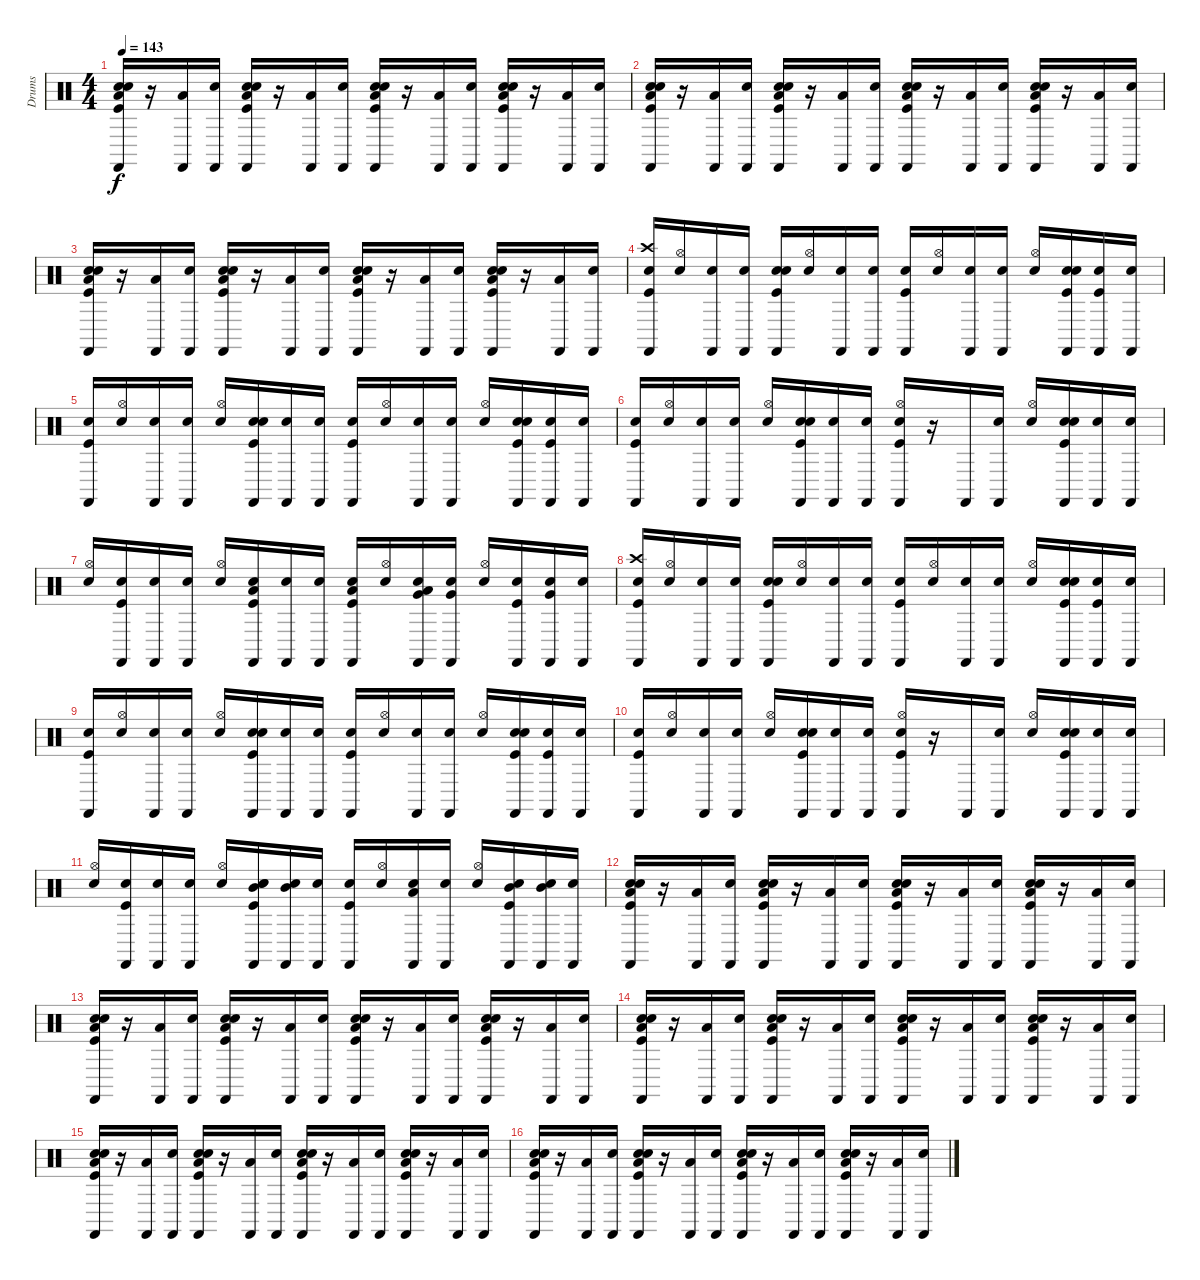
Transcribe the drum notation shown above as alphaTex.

\track ("Drums" "Drums") {instrument percussion}
\staff {score}
\articulation defaults
\ts (4 4)
\tempo 143
\clef neutral
\ks c
("Snare (hit)" "Low Tom (hit)" "Electric Snare (hit)" "Kick (hit)" "Castanets (hit)").16{dy f} r.16 ("Low Tom (hit)" "Castanets (hit)").16 ("Snare (hit)" "Castanets (hit)").16 ("Snare (hit)" "Low Tom (hit)" "Electric Snare (hit)" "Kick (hit)" "Castanets (hit)").16 r.16 ("Low Tom (hit)" "Castanets (hit)").16 ("Snare (hit)" "Castanets (hit)").16 ("Snare (hit)" "Low Tom (hit)" "Electric Snare (hit)" "Kick (hit)" "Castanets (hit)").16 r.16 ("Low Tom (hit)" "Castanets (hit)").16 ("Snare (hit)" "Castanets (hit)").16 ("Snare (hit)" "Low Tom (hit)" "Electric Snare (hit)" "Kick (hit)" "Castanets (hit)").16 r.16 ("Low Tom (hit)" "Castanets (hit)").16 ("Snare (hit)" "Castanets (hit)").16 |
("Snare (hit)" "Low Tom (hit)" "Electric Snare (hit)" "Kick (hit)" "Castanets (hit)").16 r.16 ("Low Tom (hit)" "Castanets (hit)").16 ("Snare (hit)" "Castanets (hit)").16 ("Snare (hit)" "Low Tom (hit)" "Electric Snare (hit)" "Kick (hit)" "Castanets (hit)").16 r.16 ("Low Tom (hit)" "Castanets (hit)").16 ("Snare (hit)" "Castanets (hit)").16 ("Snare (hit)" "Low Tom (hit)" "Electric Snare (hit)" "Kick (hit)" "Castanets (hit)").16 r.16 ("Low Tom (hit)" "Castanets (hit)").16 ("Snare (hit)" "Castanets (hit)").16 ("Snare (hit)" "Low Tom (hit)" "Electric Snare (hit)" "Kick (hit)" "Castanets (hit)").16 r.16 ("Low Tom (hit)" "Castanets (hit)").16 ("Snare (hit)" "Castanets (hit)").16 |
("Snare (hit)" "Low Tom (hit)" "Electric Snare (hit)" "Kick (hit)" "Castanets (hit)").16 r.16 ("Low Tom (hit)" "Castanets (hit)").16 ("Snare (hit)" "Castanets (hit)").16 ("Snare (hit)" "Low Tom (hit)" "Electric Snare (hit)" "Kick (hit)" "Castanets (hit)").16 r.16 ("Low Tom (hit)" "Castanets (hit)").16 ("Snare (hit)" "Castanets (hit)").16 ("Snare (hit)" "Low Tom (hit)" "Electric Snare (hit)" "Kick (hit)" "Castanets (hit)").16 r.16 ("Low Tom (hit)" "Castanets (hit)").16 ("Snare (hit)" "Castanets (hit)").16 ("Snare (hit)" "Low Tom (hit)" "Electric Snare (hit)" "Kick (hit)" "Castanets (hit)").16 r.16 ("Low Tom (hit)" "Castanets (hit)").16 ("Snare (hit)" "Castanets (hit)").16 |
("Snare (hit)" "Kick (hit)" "Crash high (hit)" "Castanets (hit)").16 ("Snare (hit)" "Hi-Hat (open)").16 ("Snare (hit)" "Castanets (hit)").16 ("Snare (hit)" "Castanets (hit)").16 ("Snare (hit)" "Electric Snare (hit)" "Kick (hit)" "Castanets (hit)").16 ("Snare (hit)" "Hi-Hat (open)").16 ("Snare (hit)" "Castanets (hit)").16 ("Snare (hit)" "Castanets (hit)").16 ("Snare (hit)" "Kick (hit)" "Castanets (hit)").16 ("Snare (hit)" "Hi-Hat (open)").16 ("Snare (hit)" "Castanets (hit)").16 ("Snare (hit)" "Castanets (hit)").16 ("Snare (hit)" "Hi-Hat (open)").16 ("Snare (hit)" "Electric Snare (hit)" "Kick (hit)" "Castanets (hit)").16 ("Snare (hit)" "Kick (hit)" "Castanets (hit)").16 ("Snare (hit)" "Castanets (hit)").16 |
("Snare (hit)" "Kick (hit)" "Castanets (hit)").16 ("Snare (hit)" "Hi-Hat (open)").16 ("Snare (hit)" "Castanets (hit)").16 ("Snare (hit)" "Castanets (hit)").16 ("Snare (hit)" "Hi-Hat (open)").16 ("Snare (hit)" "Electric Snare (hit)" "Kick (hit)" "Castanets (hit)").16 ("Snare (hit)" "Castanets (hit)").16 ("Snare (hit)" "Castanets (hit)").16 ("Snare (hit)" "Kick (hit)" "Castanets (hit)").16 ("Snare (hit)" "Hi-Hat (open)").16 ("Snare (hit)" "Castanets (hit)").16 ("Snare (hit)" "Castanets (hit)").16 ("Snare (hit)" "Hi-Hat (open)").16 ("Snare (hit)" "Electric Snare (hit)" "Kick (hit)" "Castanets (hit)").16 ("Snare (hit)" "Kick (hit)" "Castanets (hit)").16 ("Snare (hit)" "Castanets (hit)").16 |
("Snare (hit)" "Kick (hit)" "Castanets (hit)").16 ("Snare (hit)" "Hi-Hat (open)").16 ("Snare (hit)" "Castanets (hit)").16 ("Snare (hit)" "Castanets (hit)").16 ("Snare (hit)" "Hi-Hat (open)").16 ("Snare (hit)" "Electric Snare (hit)" "Kick (hit)" "Castanets (hit)").16 ("Snare (hit)" "Castanets (hit)").16 ("Snare (hit)" "Castanets (hit)").16 ("Snare (hit)" "Kick (hit)" "Castanets (hit)" "Hi-Hat (open)").16 r.16 "Castanets (hit)".16 ("Snare (hit)" "Castanets (hit)").16 ("Snare (hit)" "Hi-Hat (open)").16 ("Snare (hit)" "Electric Snare (hit)" "Kick (hit)" "Castanets (hit)").16 ("Snare (hit)" "Castanets (hit)").16 ("Snare (hit)" "Castanets (hit)").16 |
("Snare (hit)" "Hi-Hat (open)").16 ("Snare (hit)" "Kick (hit)" "Castanets (hit)").16 ("Snare (hit)" "Castanets (hit)").16 ("Snare (hit)" "Castanets (hit)").16 ("Snare (hit)" "Hi-Hat (open)").16 ("Snare (hit)" "Kick (hit)" "Low Tom (hit)" "Castanets (hit)").16 ("Snare (hit)" "Castanets (hit)").16 ("Snare (hit)" "Castanets (hit)").16 ("Snare (hit)" "Kick (hit)" "Low Tom (hit)" "Castanets (hit)").16 ("Snare (hit)" "Hi-Hat (open)").16 ("Snare (hit)" "Very Low Tom (hit)" "Low Tom (hit)" "Castanets (hit)").16 ("Snare (hit)" "Very Low Tom (hit)" "Castanets (hit)").16 ("Snare (hit)" "Hi-Hat (open)").16 ("Snare (hit)" "Kick (hit)" "Castanets (hit)").16 ("Snare (hit)" "Very Low Tom (hit)" "Castanets (hit)").16 ("Snare (hit)" "Castanets (hit)").16 |
("Snare (hit)" "Kick (hit)" "Crash high (hit)" "Castanets (hit)").16 ("Snare (hit)" "Hi-Hat (open)").16 ("Snare (hit)" "Castanets (hit)").16 ("Snare (hit)" "Castanets (hit)").16 ("Snare (hit)" "Electric Snare (hit)" "Kick (hit)" "Castanets (hit)").16 ("Snare (hit)" "Hi-Hat (open)").16 ("Snare (hit)" "Castanets (hit)").16 ("Snare (hit)" "Castanets (hit)").16 ("Snare (hit)" "Kick (hit)" "Castanets (hit)").16 ("Snare (hit)" "Hi-Hat (open)").16 ("Snare (hit)" "Castanets (hit)").16 ("Snare (hit)" "Castanets (hit)").16 ("Snare (hit)" "Hi-Hat (open)").16 ("Snare (hit)" "Electric Snare (hit)" "Kick (hit)" "Castanets (hit)").16 ("Snare (hit)" "Kick (hit)" "Castanets (hit)").16 ("Snare (hit)" "Castanets (hit)").16 |
("Snare (hit)" "Kick (hit)" "Castanets (hit)").16 ("Snare (hit)" "Hi-Hat (open)").16 ("Snare (hit)" "Castanets (hit)").16 ("Snare (hit)" "Castanets (hit)").16 ("Snare (hit)" "Hi-Hat (open)").16 ("Snare (hit)" "Electric Snare (hit)" "Kick (hit)" "Castanets (hit)").16 ("Snare (hit)" "Castanets (hit)").16 ("Snare (hit)" "Castanets (hit)").16 ("Snare (hit)" "Kick (hit)" "Castanets (hit)").16 ("Snare (hit)" "Hi-Hat (open)").16 ("Snare (hit)" "Castanets (hit)").16 ("Snare (hit)" "Castanets (hit)").16 ("Snare (hit)" "Hi-Hat (open)").16 ("Snare (hit)" "Electric Snare (hit)" "Kick (hit)" "Castanets (hit)").16 ("Snare (hit)" "Kick (hit)" "Castanets (hit)").16 ("Snare (hit)" "Castanets (hit)").16 |
("Snare (hit)" "Kick (hit)" "Castanets (hit)").16 ("Snare (hit)" "Hi-Hat (open)").16 ("Snare (hit)" "Castanets (hit)").16 ("Snare (hit)" "Castanets (hit)").16 ("Snare (hit)" "Hi-Hat (open)").16 ("Snare (hit)" "Electric Snare (hit)" "Kick (hit)" "Castanets (hit)").16 ("Snare (hit)" "Castanets (hit)").16 ("Snare (hit)" "Castanets (hit)").16 ("Snare (hit)" "Kick (hit)" "Castanets (hit)" "Hi-Hat (open)").16 r.16 "Castanets (hit)".16 ("Snare (hit)" "Castanets (hit)").16 ("Snare (hit)" "Hi-Hat (open)").16 ("Snare (hit)" "Electric Snare (hit)" "Kick (hit)" "Castanets (hit)").16 ("Snare (hit)" "Castanets (hit)").16 ("Snare (hit)" "Castanets (hit)").16 |
("Snare (hit)" "Hi-Hat (open)").16 ("Snare (hit)" "Kick (hit)" "Castanets (hit)").16 ("Snare (hit)" "Castanets (hit)").16 ("Snare (hit)" "Castanets (hit)").16 ("Snare (hit)" "Hi-Hat (open)").16 ("Snare (hit)" "Electric Snare (hit)" "Kick (hit)" "Mid Tom (hit)" "Castanets (hit)").16 ("Snare (hit)" "Mid Tom (hit)" "Castanets (hit)").16 ("Snare (hit)" "Castanets (hit)").16 ("Snare (hit)" "Kick (hit)" "Castanets (hit)").16 ("Snare (hit)" "Hi-Hat (open)").16 ("Snare (hit)" "Low Floor Tom (hit)" "Castanets (hit)").16 ("Snare (hit)" "Castanets (hit)").16 ("Snare (hit)" "Hi-Hat (open)").16 ("Snare (hit)" "Kick (hit)" "Mid Tom (hit)" "Castanets (hit)").16 ("Snare (hit)" "Mid Tom (hit)" "Castanets (hit)").16 ("Snare (hit)" "Castanets (hit)").16 |
("Snare (hit)" "Low Tom (hit)" "Electric Snare (hit)" "Kick (hit)" "Castanets (hit)").16 r.16 ("Low Tom (hit)" "Castanets (hit)").16 ("Snare (hit)" "Castanets (hit)").16 ("Snare (hit)" "Low Tom (hit)" "Electric Snare (hit)" "Kick (hit)" "Castanets (hit)").16 r.16 ("Low Tom (hit)" "Castanets (hit)").16 ("Snare (hit)" "Castanets (hit)").16 ("Snare (hit)" "Low Tom (hit)" "Electric Snare (hit)" "Kick (hit)" "Castanets (hit)").16 r.16 ("Low Tom (hit)" "Castanets (hit)").16 ("Snare (hit)" "Castanets (hit)").16 ("Snare (hit)" "Low Tom (hit)" "Electric Snare (hit)" "Kick (hit)" "Castanets (hit)").16 r.16 ("Low Tom (hit)" "Castanets (hit)").16 ("Snare (hit)" "Castanets (hit)").16 |
("Snare (hit)" "Low Tom (hit)" "Electric Snare (hit)" "Kick (hit)" "Castanets (hit)").16 r.16 ("Low Tom (hit)" "Castanets (hit)").16 ("Snare (hit)" "Castanets (hit)").16 ("Snare (hit)" "Low Tom (hit)" "Electric Snare (hit)" "Kick (hit)" "Castanets (hit)").16 r.16 ("Low Tom (hit)" "Castanets (hit)").16 ("Snare (hit)" "Castanets (hit)").16 ("Snare (hit)" "Low Tom (hit)" "Electric Snare (hit)" "Kick (hit)" "Castanets (hit)").16 r.16 ("Low Tom (hit)" "Castanets (hit)").16 ("Snare (hit)" "Castanets (hit)").16 ("Snare (hit)" "Low Tom (hit)" "Electric Snare (hit)" "Kick (hit)" "Castanets (hit)").16 r.16 ("Low Tom (hit)" "Castanets (hit)").16 ("Snare (hit)" "Castanets (hit)").16 |
("Snare (hit)" "Low Tom (hit)" "Electric Snare (hit)" "Kick (hit)" "Castanets (hit)").16 r.16 ("Low Tom (hit)" "Castanets (hit)").16 ("Snare (hit)" "Castanets (hit)").16 ("Snare (hit)" "Low Tom (hit)" "Electric Snare (hit)" "Kick (hit)" "Castanets (hit)").16 r.16 ("Low Tom (hit)" "Castanets (hit)").16 ("Snare (hit)" "Castanets (hit)").16 ("Snare (hit)" "Low Tom (hit)" "Electric Snare (hit)" "Kick (hit)" "Castanets (hit)").16 r.16 ("Low Tom (hit)" "Castanets (hit)").16 ("Snare (hit)" "Castanets (hit)").16 ("Snare (hit)" "Low Tom (hit)" "Electric Snare (hit)" "Kick (hit)" "Castanets (hit)").16 r.16 ("Low Tom (hit)" "Castanets (hit)").16 ("Snare (hit)" "Castanets (hit)").16 |
("Snare (hit)" "Low Tom (hit)" "Electric Snare (hit)" "Kick (hit)" "Castanets (hit)").16 r.16 ("Low Tom (hit)" "Castanets (hit)").16 ("Snare (hit)" "Castanets (hit)").16 ("Snare (hit)" "Low Tom (hit)" "Electric Snare (hit)" "Kick (hit)" "Castanets (hit)").16 r.16 ("Low Tom (hit)" "Castanets (hit)").16 ("Snare (hit)" "Castanets (hit)").16 ("Snare (hit)" "Low Tom (hit)" "Electric Snare (hit)" "Kick (hit)" "Castanets (hit)").16 r.16 ("Low Tom (hit)" "Castanets (hit)").16 ("Snare (hit)" "Castanets (hit)").16 ("Snare (hit)" "Low Tom (hit)" "Electric Snare (hit)" "Kick (hit)" "Castanets (hit)").16 r.16 ("Low Tom (hit)" "Castanets (hit)").16 ("Snare (hit)" "Castanets (hit)").16 |
("Snare (hit)" "Low Tom (hit)" "Electric Snare (hit)" "Kick (hit)" "Castanets (hit)").16 r.16 ("Low Tom (hit)" "Castanets (hit)").16 ("Snare (hit)" "Castanets (hit)").16 ("Snare (hit)" "Low Tom (hit)" "Electric Snare (hit)" "Kick (hit)" "Castanets (hit)").16 r.16 ("Low Tom (hit)" "Castanets (hit)").16 ("Snare (hit)" "Castanets (hit)").16 ("Snare (hit)" "Low Tom (hit)" "Electric Snare (hit)" "Kick (hit)" "Castanets (hit)").16 r.16 ("Low Tom (hit)" "Castanets (hit)").16 ("Snare (hit)" "Castanets (hit)").16 ("Snare (hit)" "Low Tom (hit)" "Electric Snare (hit)" "Kick (hit)" "Castanets (hit)").16 r.16 ("Low Tom (hit)" "Castanets (hit)").16 ("Snare (hit)" "Castanets (hit)").16
